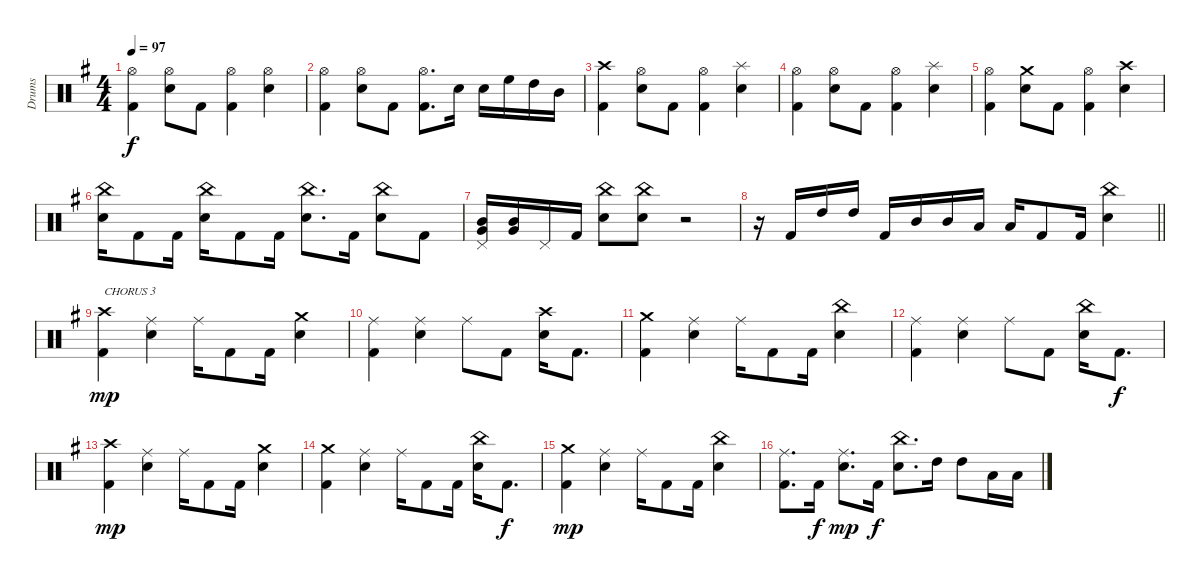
\track ("Drums" "Drums") {instrument percussion}
\staff {score}
\articulation defaults
\ts (4 4)
\tempo 97
\clef neutral
\ks g
("Hi-Hat (open)" "Kick (hit) 2").4{dy f} ("Hi-Hat (open)" "Electric Snare (hit)").8 "Kick (hit) 2".8 ("Hi-Hat (open)" "Kick (hit) 2").4 ("Hi-Hat (open)" "Electric Snare (hit)").4 |
("Hi-Hat (open)" "Kick (hit) 2").4 ("Hi-Hat (open)" "Electric Snare (hit)").8 "Kick (hit) 2".8 ("Hi-Hat (open)" "Kick (hit) 2").8{d} "Electric Snare (hit)".16 "Electric Snare (hit)".16 "High Floor Tom (hit)".16 "High Tom (hit)".16 "Mid Tom (hit)".16 |
("Crash high (hit)" "Kick (hit) 2").4 ("Hi-Hat (open)" "Electric Snare (hit)").8 "Kick (hit) 2".8 ("Hi-Hat (open)" "Kick (hit) 2").4 ("Splash (hit)" "Electric Snare (hit)").4 |
("Hi-Hat (open)" "Kick (hit) 2").4 ("Hi-Hat (open)" "Electric Snare (hit)").8 "Kick (hit) 2".8 ("Hi-Hat (open)" "Kick (hit) 2").4 ("Splash (hit)" "Electric Snare (hit)").4 |
("Hi-Hat (open)" "Kick (hit) 2").4 ("Crash medium (hit)" "Electric Snare (hit)").8 "Kick (hit) 2".8 ("Hi-Hat (open)" "Kick (hit) 2").4 ("Crash high (hit)" "Electric Snare (hit)").4 |
("Electric Snare (hit)" "China (hit)").16 "Kick (hit) 2".8 "Kick (hit) 2".16 ("Electric Snare (hit)" "China (hit)").16 "Kick (hit) 2".8 "Kick (hit) 2".16 ("Electric Snare (hit)" "China (hit)").8{d} "Kick (hit) 2".16 ("Electric Snare (hit)" "China (hit)").8 "Kick (hit) 2".8 |
("Very Low Tom (hit)" "Mid Tom (hit)" "Pedal Hi-Hat (hit)").16 ("Very Low Tom (hit)" "Mid Tom (hit)").16 "Pedal Hi-Hat (hit)".16 "Kick (hit) 2".16 ("Electric Snare (hit)" "China (hit)").8 ("Electric Snare (hit)" "China (hit)").8 r.2 |
\barLineRight lightlight
r.16 "Kick (hit) 2".16 "High Tom (hit)".16 "High Tom (hit)".16 "Kick (hit) 2".16 "Mid Tom (hit)".16 "Mid Tom (hit)".16 "Low Tom (hit)".16 "Low Tom (hit)".16 "Kick (hit) 2".8 "Kick (hit) 2".16 ("Electric Snare (hit)" "China (hit)").4 |
("Crash high (hit)" "Kick (hit) 2").4{txt "CHORUS 3" dy mp} ("Ride (middle)" "Electric Snare (hit)").4 "Ride (middle)".16 "Kick (hit) 2".8 "Kick (hit) 2".16 ("Crash medium (hit)" "Electric Snare (hit)").4 |
("Ride (middle)" "Kick (hit) 2").4 ("Ride (middle)" "Electric Snare (hit)").4 "Ride (middle)".8 "Kick (hit) 2".8 ("Crash high (hit)" "Electric Snare (hit)").16 "Kick (hit) 2".8{d} |
("Crash medium (hit)" "Kick (hit) 2").4 ("Ride (middle)" "Electric Snare (hit)").4 "Ride (middle)".16 "Kick (hit) 2".8 "Kick (hit) 2".16 ("China (hit)" "Electric Snare (hit)").4 |
("Ride (middle)" "Kick (hit) 2").4 ("Ride (middle)" "Electric Snare (hit)").4 "Ride (middle)".8 "Kick (hit) 2".8 ("China (hit)" "Electric Snare (hit)").16 "Kick (hit) 2".8{d dy f} |
("Crash high (hit)" "Kick (hit) 2").4{dy mp} ("Ride (middle)" "Electric Snare (hit)").4 "Ride (middle)".16 "Kick (hit) 2".8 "Kick (hit) 2".16 ("Crash medium (hit)" "Electric Snare (hit)").4 |
("Crash medium (hit)" "Kick (hit) 2").4 ("Ride (middle)" "Electric Snare (hit)").4 "Ride (middle)".16 "Kick (hit) 2".8 "Kick (hit) 2".16 ("China (hit)" "Electric Snare (hit)").16 "Kick (hit) 2".8{d dy f} |
("Crash medium (hit)" "Kick (hit) 2").4{dy mp} ("Ride (middle)" "Electric Snare (hit)").4 "Ride (middle)".16 "Kick (hit) 2".8 "Kick (hit) 2".16 ("China (hit)" "Electric Snare (hit)").4 |
("Ride (middle)" "Kick (hit) 2").8{d} "Kick (hit) 2".16{dy f} ("Ride (middle)" "Electric Snare (hit)").8{d dy mp} "Kick (hit) 2".16{dy f} ("China (hit)" "Electric Snare (hit)").8{d} "High Tom (hit)".16 "High Tom (hit)".8 "Low Tom (hit)".16 "Low Tom (hit)".16
